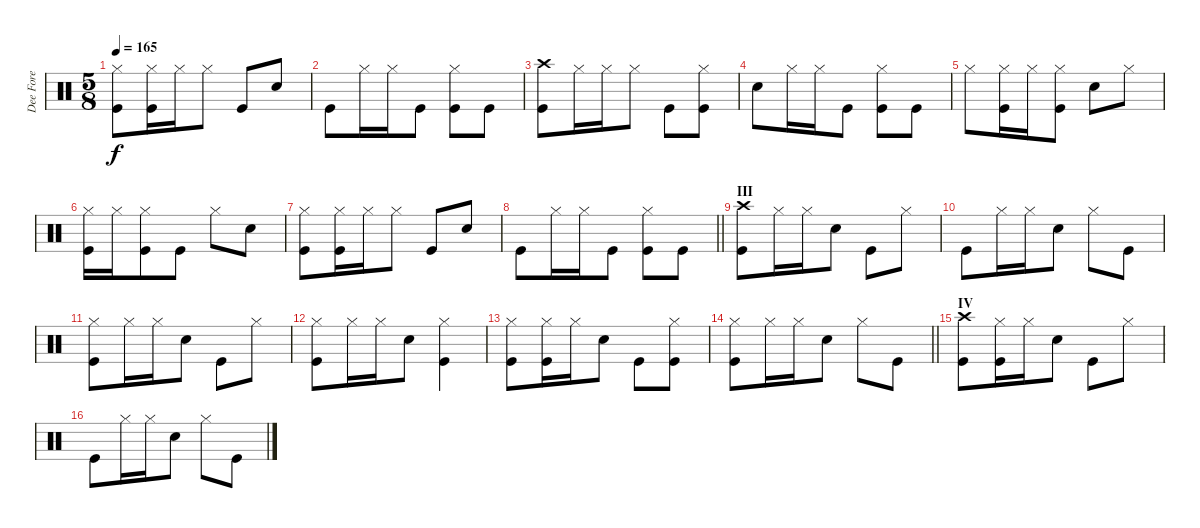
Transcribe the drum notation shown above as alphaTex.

\track ("Dee Fore" "Dee Fore") {instrument percussion}
\staff {score}
\articulation defaults
\ts (5 8)
\tempo 165
\clef neutral
\ks c
("Hi-Hat (closed)" "Kick (hit)").8{dy f} ("Hi-Hat (closed)" "Kick (hit)").16 "Hi-Hat (closed)".16 "Hi-Hat (closed)".8 "Kick (hit)".8 "Electric Snare (hit)".8 |
"Kick (hit)".8 "Hi-Hat (closed)".16 "Hi-Hat (closed)".16 "Kick (hit)".8 ("Hi-Hat (closed)" "Kick (hit)").8 "Kick (hit)".8 |
("Crash high (hit)" "Kick (hit)").8 "Hi-Hat (closed)".16 "Hi-Hat (closed)".16 "Hi-Hat (closed)".8 "Kick (hit)".8 ("Hi-Hat (closed)" "Kick (hit)").8 |
"Electric Snare (hit)".8 "Hi-Hat (closed)".16 "Hi-Hat (closed)".16 "Kick (hit)".8 ("Hi-Hat (closed)" "Kick (hit)").8 "Kick (hit)".8 |
"Hi-Hat (closed)".8 ("Hi-Hat (closed)" "Kick (hit)").16 "Hi-Hat (closed)".16 ("Hi-Hat (closed)" "Kick (hit)").8 "Electric Snare (hit)".8 "Hi-Hat (closed)".8 |
("Hi-Hat (closed)" "Kick (hit)").16 "Hi-Hat (closed)".16 ("Hi-Hat (closed)" "Kick (hit)").8 "Kick (hit)".8 "Hi-Hat (closed)".8 "Electric Snare (hit)".8 |
("Hi-Hat (closed)" "Kick (hit)").8 ("Hi-Hat (closed)" "Kick (hit)").16 "Hi-Hat (closed)".16 "Hi-Hat (closed)".8 "Kick (hit)".8 "Electric Snare (hit)".8 |
\barLineRight lightlight "Kick (hit)".8 "Hi-Hat (closed)".16 "Hi-Hat (closed)".16 "Kick (hit)".8
("Hi-Hat (closed)" "Kick (hit)").8 "Kick (hit)".8 |
\section ("" "III")
("Crash high (hit)" "Kick (hit)").8 "Hi-Hat (closed)".16 "Hi-Hat (closed)".16 "Electric Snare (hit)".8 "Kick (hit)".8 "Hi-Hat (closed)".8 |
"Kick (hit)".8 "Hi-Hat (closed)".16 "Hi-Hat (closed)".16 "Electric Snare (hit)".8 "Hi-Hat (closed)".8 "Kick (hit)".8 |
("Hi-Hat (closed)" "Kick (hit)").8 "Hi-Hat (closed)".16 "Hi-Hat (closed)".16 "Electric Snare (hit)".8 "Kick (hit)".8 "Hi-Hat (closed)".8 |
("Hi-Hat (closed)" "Kick (hit)").8 "Hi-Hat (closed)".16 "Hi-Hat (closed)".16 "Electric Snare (hit)".8 ("Hi-Hat (closed)" "Kick (hit)").4 |
("Hi-Hat (closed)" "Kick (hit)").8 ("Hi-Hat (closed)" "Kick (hit)").16 "Hi-Hat (closed)".16 "Electric Snare (hit)".8 "Kick (hit)".8 ("Hi-Hat (closed)" "Kick (hit)").8 |
\barLineRight lightlight
("Hi-Hat (closed)" "Kick (hit)").8 "Hi-Hat (closed)".16 "Hi-Hat (closed)".16 "Electric Snare (hit)".8 "Hi-Hat (closed)".8 "Kick (hit)".8 |
\section ("" "IV")
("Crash high (hit)" "Kick (hit)").8 ("Hi-Hat (closed)" "Kick (hit)").16 "Hi-Hat (closed)".16 "Electric Snare (hit)".8 "Kick (hit)".8 "Hi-Hat (closed)".8 |
"Kick (hit)".8 "Hi-Hat (closed)".16 "Hi-Hat (closed)".16 "Electric Snare (hit)".8 "Hi-Hat (closed)".8 "Kick (hit)".8
